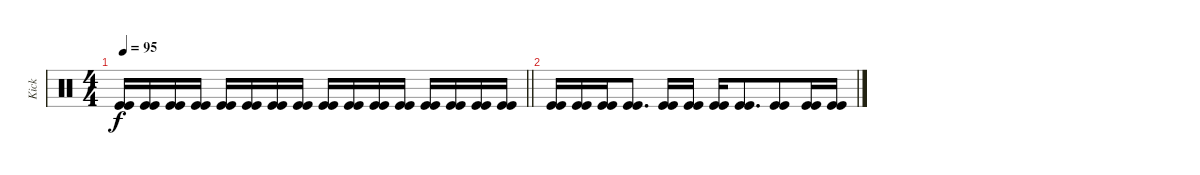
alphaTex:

\track ("Kick" "Kick") {instrument percussion}
\staff {score}
\articulation defaults
\ts (4 4)
\tempo 95
\clef neutral
\barLineRight lightlight
\ks c
("Kick (hit)" "Kick (hit)").16{dy f beam merge} ("Kick (hit)" "Kick (hit)").16 ("Kick (hit)" "Kick (hit)").16 ("Kick (hit)" "Kick (hit)").16 ("Kick (hit)" "Kick (hit)").16 ("Kick (hit)" "Kick (hit)").16 ("Kick (hit)" "Kick (hit)").16 ("Kick (hit)" "Kick (hit)").16 ("Kick (hit)" "Kick (hit)").16 ("Kick (hit)" "Kick (hit)").16 ("Kick (hit)" "Kick (hit)").16 ("Kick (hit)" "Kick (hit)").16 ("Kick (hit)" "Kick (hit)").16 ("Kick (hit)" "Kick (hit)").16 ("Kick (hit)" "Kick (hit)").16 ("Kick (hit)" "Kick (hit)").16 |
("Kick (hit)" "Kick (hit)").16{beam merge} ("Kick (hit)" "Kick (hit)").16 ("Kick (hit)" "Kick (hit)").16 ("Kick (hit)" "Kick (hit)").8{d} ("Kick (hit)" "Kick (hit)").16 ("Kick (hit)" "Kick (hit)").16 ("Kick (hit)" "Kick (hit)").16 ("Kick (hit)" "Kick (hit)").8{d beam merge} ("Kick (hit)" "Kick (hit)").8 ("Kick (hit)" "Kick (hit)").16{beam merge} ("Kick (hit)" "Kick (hit)").16
